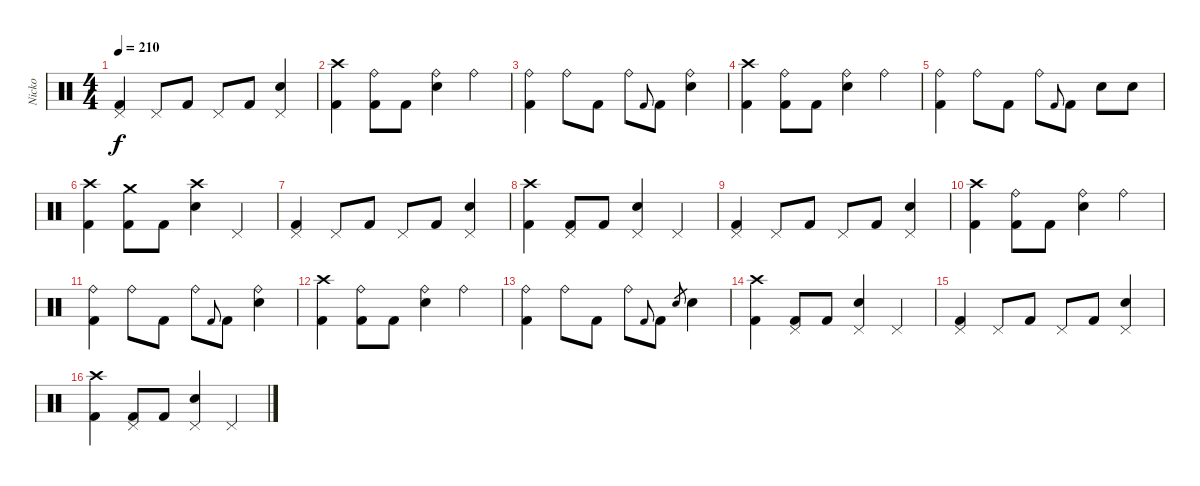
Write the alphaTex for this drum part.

\track ("Nicko" "Nicko") {instrument percussion}
\staff {score}
\articulation defaults
\ts (4 4)
\tempo 210
\clef neutral
\ks c
("Pedal Hi-Hat (hit)" "Kick (hit) 2").4{dy f} "Pedal Hi-Hat (hit)".8 "Kick (hit) 2".8 "Pedal Hi-Hat (hit)".8 "Kick (hit) 2".8 ("Pedal Hi-Hat (hit)" "Electric Snare (hit)").4 |
("Crash high (hit)" "Kick (hit) 2").4 ("Ride (bell)" "Kick (hit) 2").8 "Kick (hit) 2".8 ("Ride (bell)" "Electric Snare (hit)").4 "Ride (bell)".4 |
("Ride (bell)" "Kick (hit) 2").4 "Ride (bell)".8 "Kick (hit) 2".8 "Ride (bell)".8 "Kick (hit) 2"{h}.8{gr onbeat} "Kick (hit) 2".8 ("Ride (bell)" "Electric Snare (hit)").4 |
("Crash high (hit)" "Kick (hit) 2").4 ("Ride (bell)" "Kick (hit) 2").8 "Kick (hit) 2".8 ("Ride (bell)" "Electric Snare (hit)").4 "Ride (bell)".4 |
("Ride (bell)" "Kick (hit) 2").4 "Ride (bell)".8 "Kick (hit) 2".8 "Ride (bell)".8 "Kick (hit) 2"{h}.8{gr onbeat} "Kick (hit) 2".8 "Electric Snare (hit)".8 "Electric Snare (hit)".8 |
("Crash high (hit)" "Kick (hit) 2").4 ("Crash medium (hit)" "Kick (hit) 2").8 "Kick (hit) 2".8 ("Crash high (hit)" "Electric Snare (hit)").4 "Pedal Hi-Hat (hit)".4 |
("Pedal Hi-Hat (hit)" "Kick (hit) 2").4 "Pedal Hi-Hat (hit)".8 "Kick (hit) 2".8 "Pedal Hi-Hat (hit)".8 "Kick (hit) 2".8 ("Pedal Hi-Hat (hit)" "Electric Snare (hit)").4 |
("Crash high (hit)" "Kick (hit) 2").4 ("Pedal Hi-Hat (hit)" "Kick (hit) 2").8 "Kick (hit) 2".8 ("Pedal Hi-Hat (hit)" "Electric Snare (hit)").4 "Pedal Hi-Hat (hit)".4 |
("Pedal Hi-Hat (hit)" "Kick (hit) 2").4 "Pedal Hi-Hat (hit)".8 "Kick (hit) 2".8 "Pedal Hi-Hat (hit)".8 "Kick (hit) 2".8 ("Pedal Hi-Hat (hit)" "Electric Snare (hit)").4 |
("Crash high (hit)" "Kick (hit) 2").4 ("Ride (bell)" "Kick (hit) 2").8 "Kick (hit) 2".8 ("Ride (bell)" "Electric Snare (hit)").4 "Ride (bell)".4 |
("Ride (bell)" "Kick (hit) 2").4 "Ride (bell)".8 "Kick (hit) 2".8 "Ride (bell)".8 "Kick (hit) 2"{h}.8{gr onbeat} "Kick (hit) 2".8 ("Ride (bell)" "Electric Snare (hit)").4 |
("Crash high (hit)" "Kick (hit) 2").4 ("Ride (bell)" "Kick (hit) 2").8 "Kick (hit) 2".8 ("Ride (bell)" "Electric Snare (hit)").4 "Ride (bell)".4 |
("Ride (bell)" "Kick (hit) 2").4 "Ride (bell)".8 "Kick (hit) 2".8 "Ride (bell)".8 "Kick (hit) 2"{h}.8{gr onbeat} "Kick (hit) 2".8 "Electric Snare (hit)".8{gr} "Electric Snare (hit)".4 |
("Crash high (hit)" "Kick (hit) 2").4 ("Pedal Hi-Hat (hit)" "Kick (hit) 2").8 "Kick (hit) 2".8 ("Pedal Hi-Hat (hit)" "Electric Snare (hit)").4 "Pedal Hi-Hat (hit)".4 |
("Pedal Hi-Hat (hit)" "Kick (hit) 2").4 "Pedal Hi-Hat (hit)".8 "Kick (hit) 2".8 "Pedal Hi-Hat (hit)".8 "Kick (hit) 2".8 ("Pedal Hi-Hat (hit)" "Electric Snare (hit)").4 |
("Crash high (hit)" "Kick (hit) 2").4 ("Pedal Hi-Hat (hit)" "Kick (hit) 2").8 "Kick (hit) 2".8 ("Pedal Hi-Hat (hit)" "Electric Snare (hit)").4 "Pedal Hi-Hat (hit)".4
